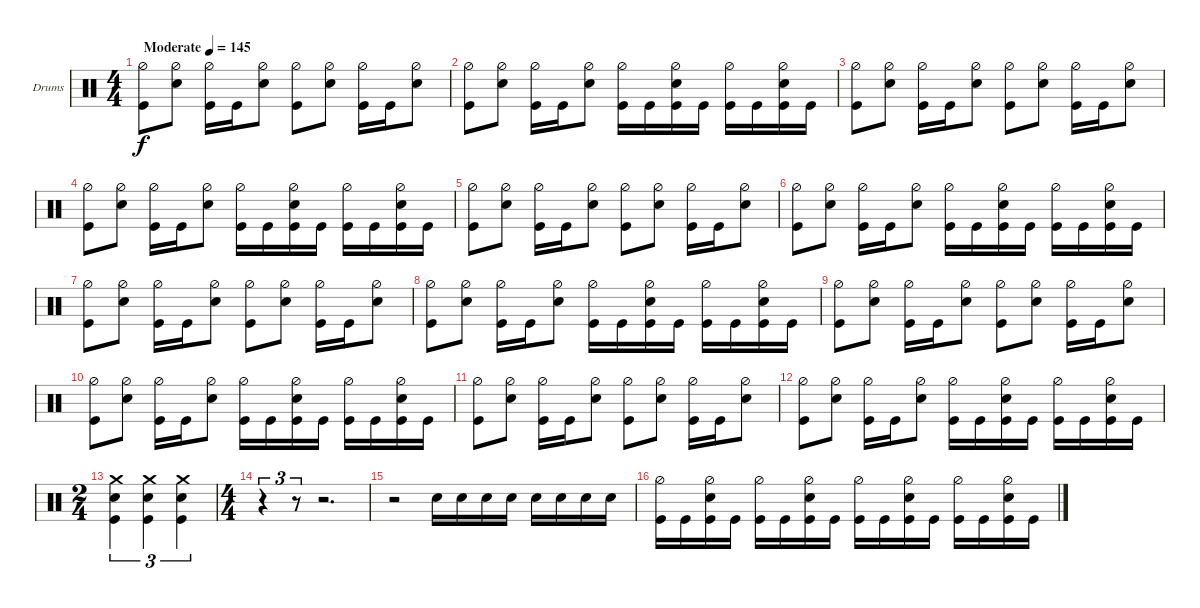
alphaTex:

\bracketExtendMode groupsimilarinstruments
\firstSystemTrackNameOrientation horizontal
\otherSystemsTrackNameOrientation horizontal
\track ("Drumkit" "Drums") {instrument percussion}
\staff {score}
\articulation defaults
\ts (4 4)
\beaming (8 2 2 2 2)
\tempo (145 "Moderate")
\clef neutral
\ks c
("Kick (hit)" "Hi-Hat (half)").8{dy f} ("Snare (hit) 2" "Hi-Hat (half)").8 ("Kick (hit)" "Hi-Hat (half)").16 "Kick (hit)".16 ("Snare (hit) 2" "Hi-Hat (half)").8 ("Kick (hit)" "Hi-Hat (half)").8 ("Snare (hit) 2" "Hi-Hat (half)").8 ("Kick (hit)" "Hi-Hat (half)").16 "Kick (hit)".16 ("Snare (hit) 2" "Hi-Hat (half)").8 |
("Kick (hit)" "Hi-Hat (half)").8 ("Snare (hit) 2" "Hi-Hat (half)").8 ("Kick (hit)" "Hi-Hat (half)").16 "Kick (hit)".16 ("Snare (hit) 2" "Hi-Hat (half)").8 ("Kick (hit)" "Hi-Hat (half)").16 "Kick (hit)".16 ("Snare (hit) 2" "Kick (hit)" "Hi-Hat (half)").16 "Kick (hit)".16 ("Kick (hit)" "Hi-Hat (half)").16 "Kick (hit)".16 ("Snare (hit) 2" "Kick (hit)" "Hi-Hat (half)").16 "Kick (hit)".16 |
("Kick (hit)" "Hi-Hat (half)").8 ("Snare (hit) 2" "Hi-Hat (half)").8 ("Kick (hit)" "Hi-Hat (half)").16 "Kick (hit)".16 ("Snare (hit) 2" "Hi-Hat (half)").8 ("Kick (hit)" "Hi-Hat (half)").8 ("Snare (hit) 2" "Hi-Hat (half)").8 ("Kick (hit)" "Hi-Hat (half)").16 "Kick (hit)".16 ("Snare (hit) 2" "Hi-Hat (half)").8 |
("Kick (hit)" "Hi-Hat (half)").8 ("Snare (hit) 2" "Hi-Hat (half)").8 ("Kick (hit)" "Hi-Hat (half)").16 "Kick (hit)".16 ("Snare (hit) 2" "Hi-Hat (half)").8 ("Kick (hit)" "Hi-Hat (half)").16 "Kick (hit)".16 ("Snare (hit) 2" "Kick (hit)" "Hi-Hat (half)").16 "Kick (hit)".16 ("Kick (hit)" "Hi-Hat (half)").16 "Kick (hit)".16 ("Snare (hit) 2" "Kick (hit)" "Hi-Hat (half)").16 "Kick (hit)".16 |
("Kick (hit)" "Hi-Hat (half)").8 ("Snare (hit) 2" "Hi-Hat (half)").8 ("Kick (hit)" "Hi-Hat (half)").16 "Kick (hit)".16 ("Snare (hit) 2" "Hi-Hat (half)").8 ("Kick (hit)" "Hi-Hat (half)").8 ("Snare (hit) 2" "Hi-Hat (half)").8 ("Kick (hit)" "Hi-Hat (half)").16 "Kick (hit)".16 ("Snare (hit) 2" "Hi-Hat (half)").8 |
("Kick (hit)" "Hi-Hat (half)").8 ("Snare (hit) 2" "Hi-Hat (half)").8 ("Kick (hit)" "Hi-Hat (half)").16 "Kick (hit)".16 ("Snare (hit) 2" "Hi-Hat (half)").8 ("Kick (hit)" "Hi-Hat (half)").16 "Kick (hit)".16 ("Snare (hit) 2" "Kick (hit)" "Hi-Hat (half)").16 "Kick (hit)".16 ("Kick (hit)" "Hi-Hat (half)").16 "Kick (hit)".16 ("Snare (hit) 2" "Kick (hit)" "Hi-Hat (half)").16 "Kick (hit)".16 |
("Kick (hit)" "Hi-Hat (half)").8 ("Snare (hit) 2" "Hi-Hat (half)").8 ("Kick (hit)" "Hi-Hat (half)").16 "Kick (hit)".16 ("Snare (hit) 2" "Hi-Hat (half)").8 ("Kick (hit)" "Hi-Hat (half)").8 ("Snare (hit) 2" "Hi-Hat (half)").8 ("Kick (hit)" "Hi-Hat (half)").16 "Kick (hit)".16 ("Snare (hit) 2" "Hi-Hat (half)").8 |
("Kick (hit)" "Hi-Hat (half)").8 ("Snare (hit) 2" "Hi-Hat (half)").8 ("Kick (hit)" "Hi-Hat (half)").16 "Kick (hit)".16 ("Snare (hit) 2" "Hi-Hat (half)").8 ("Kick (hit)" "Hi-Hat (half)").16 "Kick (hit)".16 ("Snare (hit) 2" "Kick (hit)" "Hi-Hat (half)").16 "Kick (hit)".16 ("Kick (hit)" "Hi-Hat (half)").16 "Kick (hit)".16 ("Snare (hit) 2" "Kick (hit)" "Hi-Hat (half)").16 "Kick (hit)".16 |
("Kick (hit)" "Hi-Hat (half)").8 ("Snare (hit) 2" "Hi-Hat (half)").8 ("Kick (hit)" "Hi-Hat (half)").16 "Kick (hit)".16 ("Snare (hit) 2" "Hi-Hat (half)").8 ("Kick (hit)" "Hi-Hat (half)").8 ("Snare (hit) 2" "Hi-Hat (half)").8 ("Kick (hit)" "Hi-Hat (half)").16 "Kick (hit)".16 ("Snare (hit) 2" "Hi-Hat (half)").8 |
("Kick (hit)" "Hi-Hat (half)").8 ("Snare (hit) 2" "Hi-Hat (half)").8 ("Kick (hit)" "Hi-Hat (half)").16 "Kick (hit)".16 ("Snare (hit) 2" "Hi-Hat (half)").8 ("Kick (hit)" "Hi-Hat (half)").16 "Kick (hit)".16 ("Snare (hit) 2" "Kick (hit)" "Hi-Hat (half)").16 "Kick (hit)".16 ("Kick (hit)" "Hi-Hat (half)").16 "Kick (hit)".16 ("Snare (hit) 2" "Kick (hit)" "Hi-Hat (half)").16 "Kick (hit)".16 |
("Kick (hit)" "Hi-Hat (half)").8 ("Snare (hit) 2" "Hi-Hat (half)").8 ("Kick (hit)" "Hi-Hat (half)").16 "Kick (hit)".16 ("Snare (hit) 2" "Hi-Hat (half)").8 ("Kick (hit)" "Hi-Hat (half)").8 ("Snare (hit) 2" "Hi-Hat (half)").8 ("Kick (hit)" "Hi-Hat (half)").16 "Kick (hit)".16 ("Snare (hit) 2" "Hi-Hat (half)").8 |
("Kick (hit)" "Hi-Hat (half)").8 ("Snare (hit) 2" "Hi-Hat (half)").8 ("Kick (hit)" "Hi-Hat (half)").16 "Kick (hit)".16 ("Snare (hit) 2" "Hi-Hat (half)").8 ("Kick (hit)" "Hi-Hat (half)").16 "Kick (hit)".16 ("Snare (hit) 2" "Kick (hit)" "Hi-Hat (half)").16 "Kick (hit)".16 ("Kick (hit)" "Hi-Hat (half)").16 "Kick (hit)".16 ("Snare (hit) 2" "Kick (hit)" "Hi-Hat (half)").16 "Kick (hit)".16 |
\ts (2 4)
\beaming (8 2 2)
("Crash medium (hit)" "Snare (hit) 2" "Kick (hit)").4{tu (3 2)} ("Crash medium (hit)" "Snare (hit) 2" "Kick (hit)").4{tu (3 2)} ("Crash medium (hit)" "Snare (hit) 2" "Kick (hit)").4{tu (3 2)} |
\ts (4 4)
\beaming (8 2 2 2 2)
r.4{tu (3 2)} r.8{tu (3 2)} r.2{d} |
r.2 "Snare (hit) 2".16 "Snare (hit) 2".16 "Snare (hit) 2".16 "Snare (hit) 2".16 "Snare (hit) 2".16 "Snare (hit) 2".16 "Snare (hit) 2".16 "Snare (hit) 2".16 |
("Kick (hit)" "Hi-Hat (half)").16 "Kick (hit)".16 ("Snare (hit) 2" "Kick (hit)" "Hi-Hat (half)").16 "Kick (hit)".16 ("Kick (hit)" "Hi-Hat (half)").16 "Kick (hit)".16 ("Snare (hit) 2" "Kick (hit)" "Hi-Hat (half)").16 "Kick (hit)".16 ("Kick (hit)" "Hi-Hat (half)").16 "Kick (hit)".16 ("Snare (hit) 2" "Kick (hit)" "Hi-Hat (half)").16 "Kick (hit)".16 ("Kick (hit)" "Hi-Hat (half)").16 "Kick (hit)".16 ("Snare (hit) 2" "Kick (hit)" "Hi-Hat (half)").16 "Kick (hit)".16
